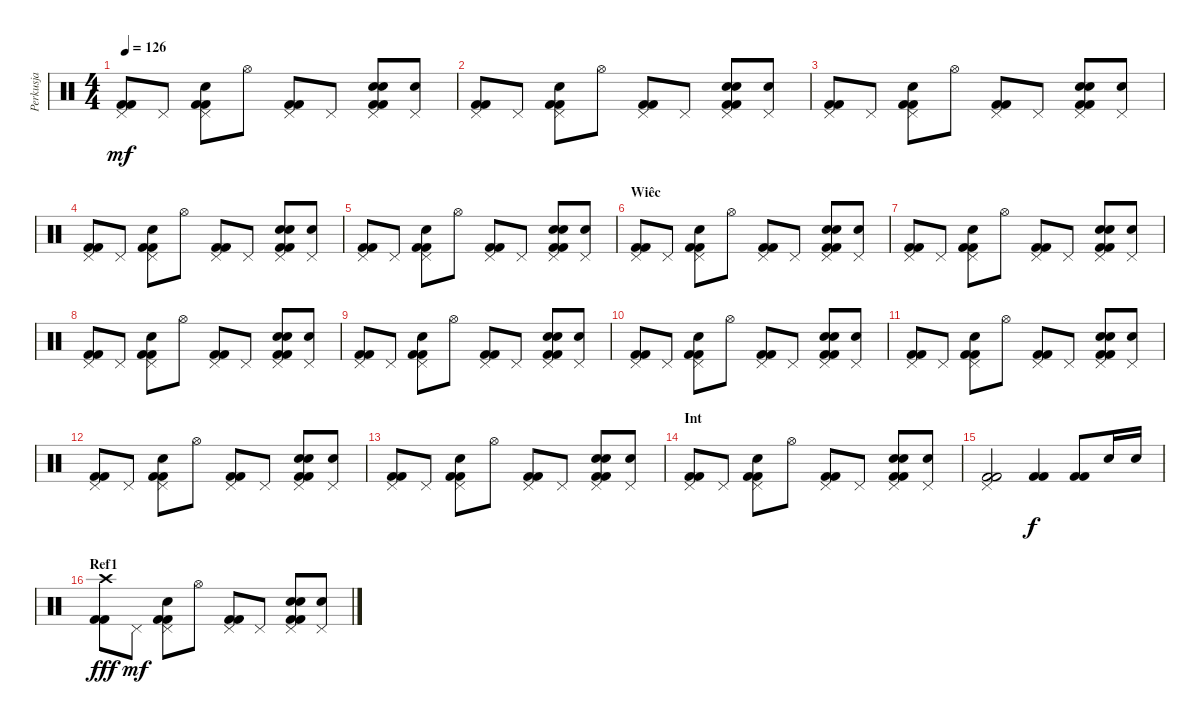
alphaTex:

\track ("Perkusja" "Perkusja") {instrument percussion}
\staff {score}
\articulation defaults
\ts (4 4)
\tempo 126
\clef neutral
\ks c
("Pedal Hi-Hat (hit)" "Kick (hit) 2" "Kick (hit) 2").8{dy mf} "Pedal Hi-Hat (hit)".8 ("Pedal Hi-Hat (hit)" "Snare (hit) 2" "Kick (hit) 2" "Kick (hit) 2").8 "Hi-Hat (open)".8 ("Pedal Hi-Hat (hit)" "Kick (hit) 2" "Kick (hit) 2").8 "Pedal Hi-Hat (hit)".8 ("Pedal Hi-Hat (hit)" "Hand Clap (hit)" "Snare (hit) 2" "Kick (hit) 2" "Kick (hit) 2").8 ("Pedal Hi-Hat (hit)" "Hand Clap (hit)").8 |
("Pedal Hi-Hat (hit)" "Kick (hit) 2" "Kick (hit) 2").8 "Pedal Hi-Hat (hit)".8 ("Pedal Hi-Hat (hit)" "Snare (hit) 2" "Kick (hit) 2" "Kick (hit) 2").8 "Hi-Hat (open)".8 ("Pedal Hi-Hat (hit)" "Kick (hit) 2" "Kick (hit) 2").8 "Pedal Hi-Hat (hit)".8 ("Pedal Hi-Hat (hit)" "Hand Clap (hit)" "Snare (hit) 2" "Kick (hit) 2" "Kick (hit) 2").8 ("Pedal Hi-Hat (hit)" "Hand Clap (hit)").8 |
("Pedal Hi-Hat (hit)" "Kick (hit) 2" "Kick (hit) 2").8 "Pedal Hi-Hat (hit)".8 ("Pedal Hi-Hat (hit)" "Snare (hit) 2" "Kick (hit) 2" "Kick (hit) 2").8 "Hi-Hat (open)".8 ("Pedal Hi-Hat (hit)" "Kick (hit) 2" "Kick (hit) 2").8 "Pedal Hi-Hat (hit)".8 ("Pedal Hi-Hat (hit)" "Hand Clap (hit)" "Snare (hit) 2" "Kick (hit) 2" "Kick (hit) 2").8 ("Pedal Hi-Hat (hit)" "Hand Clap (hit)").8 |
("Pedal Hi-Hat (hit)" "Kick (hit) 2" "Kick (hit) 2").8 "Pedal Hi-Hat (hit)".8 ("Pedal Hi-Hat (hit)" "Snare (hit) 2" "Kick (hit) 2" "Kick (hit) 2").8 "Hi-Hat (open)".8 ("Pedal Hi-Hat (hit)" "Kick (hit) 2" "Kick (hit) 2").8 "Pedal Hi-Hat (hit)".8 ("Pedal Hi-Hat (hit)" "Hand Clap (hit)" "Snare (hit) 2" "Kick (hit) 2" "Kick (hit) 2").8 ("Pedal Hi-Hat (hit)" "Hand Clap (hit)").8 |
("Pedal Hi-Hat (hit)" "Kick (hit) 2" "Kick (hit) 2").8 "Pedal Hi-Hat (hit)".8 ("Pedal Hi-Hat (hit)" "Snare (hit) 2" "Kick (hit) 2" "Kick (hit) 2").8 "Hi-Hat (open)".8 ("Pedal Hi-Hat (hit)" "Kick (hit) 2" "Kick (hit) 2").8 "Pedal Hi-Hat (hit)".8 ("Pedal Hi-Hat (hit)" "Hand Clap (hit)" "Snare (hit) 2" "Kick (hit) 2" "Kick (hit) 2").8 ("Pedal Hi-Hat (hit)" "Hand Clap (hit)").8 |
\section ("" "Wiêc")
("Pedal Hi-Hat (hit)" "Kick (hit) 2" "Kick (hit) 2").8 "Pedal Hi-Hat (hit)".8 ("Pedal Hi-Hat (hit)" "Snare (hit) 2" "Kick (hit) 2" "Kick (hit) 2").8 "Hi-Hat (open)".8 ("Pedal Hi-Hat (hit)" "Kick (hit) 2" "Kick (hit) 2").8 "Pedal Hi-Hat (hit)".8 ("Pedal Hi-Hat (hit)" "Hand Clap (hit)" "Snare (hit) 2" "Kick (hit) 2" "Kick (hit) 2").8 ("Pedal Hi-Hat (hit)" "Hand Clap (hit)").8 |
("Pedal Hi-Hat (hit)" "Kick (hit) 2" "Kick (hit) 2").8 "Pedal Hi-Hat (hit)".8 ("Pedal Hi-Hat (hit)" "Snare (hit) 2" "Kick (hit) 2" "Kick (hit) 2").8 "Hi-Hat (open)".8 ("Pedal Hi-Hat (hit)" "Kick (hit) 2" "Kick (hit) 2").8 "Pedal Hi-Hat (hit)".8 ("Pedal Hi-Hat (hit)" "Hand Clap (hit)" "Snare (hit) 2" "Kick (hit) 2" "Kick (hit) 2").8 ("Pedal Hi-Hat (hit)" "Hand Clap (hit)").8 |
("Pedal Hi-Hat (hit)" "Kick (hit) 2" "Kick (hit) 2").8 "Pedal Hi-Hat (hit)".8 ("Pedal Hi-Hat (hit)" "Snare (hit) 2" "Kick (hit) 2" "Kick (hit) 2").8 "Hi-Hat (open)".8 ("Pedal Hi-Hat (hit)" "Kick (hit) 2" "Kick (hit) 2").8 "Pedal Hi-Hat (hit)".8 ("Pedal Hi-Hat (hit)" "Hand Clap (hit)" "Snare (hit) 2" "Kick (hit) 2" "Kick (hit) 2").8 ("Pedal Hi-Hat (hit)" "Hand Clap (hit)").8 |
("Pedal Hi-Hat (hit)" "Kick (hit) 2" "Kick (hit) 2").8 "Pedal Hi-Hat (hit)".8 ("Pedal Hi-Hat (hit)" "Snare (hit) 2" "Kick (hit) 2" "Kick (hit) 2").8 "Hi-Hat (open)".8 ("Pedal Hi-Hat (hit)" "Kick (hit) 2" "Kick (hit) 2").8 "Pedal Hi-Hat (hit)".8 ("Pedal Hi-Hat (hit)" "Hand Clap (hit)" "Snare (hit) 2" "Kick (hit) 2" "Kick (hit) 2").8 ("Pedal Hi-Hat (hit)" "Hand Clap (hit)").8 |
("Pedal Hi-Hat (hit)" "Kick (hit) 2" "Kick (hit) 2").8 "Pedal Hi-Hat (hit)".8 ("Pedal Hi-Hat (hit)" "Snare (hit) 2" "Kick (hit) 2" "Kick (hit) 2").8 "Hi-Hat (open)".8 ("Pedal Hi-Hat (hit)" "Kick (hit) 2" "Kick (hit) 2").8 "Pedal Hi-Hat (hit)".8 ("Pedal Hi-Hat (hit)" "Hand Clap (hit)" "Snare (hit) 2" "Kick (hit) 2" "Kick (hit) 2").8 ("Pedal Hi-Hat (hit)" "Hand Clap (hit)").8 |
("Pedal Hi-Hat (hit)" "Kick (hit) 2" "Kick (hit) 2").8 "Pedal Hi-Hat (hit)".8 ("Pedal Hi-Hat (hit)" "Snare (hit) 2" "Kick (hit) 2" "Kick (hit) 2").8 "Hi-Hat (open)".8 ("Pedal Hi-Hat (hit)" "Kick (hit) 2" "Kick (hit) 2").8 "Pedal Hi-Hat (hit)".8 ("Pedal Hi-Hat (hit)" "Hand Clap (hit)" "Snare (hit) 2" "Kick (hit) 2" "Kick (hit) 2").8 ("Pedal Hi-Hat (hit)" "Hand Clap (hit)").8 |
("Pedal Hi-Hat (hit)" "Kick (hit) 2" "Kick (hit) 2").8 "Pedal Hi-Hat (hit)".8 ("Pedal Hi-Hat (hit)" "Snare (hit) 2" "Kick (hit) 2" "Kick (hit) 2").8 "Hi-Hat (open)".8 ("Pedal Hi-Hat (hit)" "Kick (hit) 2" "Kick (hit) 2").8 "Pedal Hi-Hat (hit)".8 ("Pedal Hi-Hat (hit)" "Hand Clap (hit)" "Snare (hit) 2" "Kick (hit) 2" "Kick (hit) 2").8 ("Pedal Hi-Hat (hit)" "Hand Clap (hit)").8 |
("Pedal Hi-Hat (hit)" "Kick (hit) 2" "Kick (hit) 2").8 "Pedal Hi-Hat (hit)".8 ("Pedal Hi-Hat (hit)" "Snare (hit) 2" "Kick (hit) 2" "Kick (hit) 2").8 "Hi-Hat (open)".8 ("Pedal Hi-Hat (hit)" "Kick (hit) 2" "Kick (hit) 2").8 "Pedal Hi-Hat (hit)".8 ("Pedal Hi-Hat (hit)" "Hand Clap (hit)" "Snare (hit) 2" "Kick (hit) 2" "Kick (hit) 2").8 ("Pedal Hi-Hat (hit)" "Hand Clap (hit)").8 |
\section ("" "Int")
("Pedal Hi-Hat (hit)" "Kick (hit) 2" "Kick (hit) 2").8 "Pedal Hi-Hat (hit)".8 ("Pedal Hi-Hat (hit)" "Snare (hit) 2" "Kick (hit) 2" "Kick (hit) 2").8 "Hi-Hat (open)".8 ("Pedal Hi-Hat (hit)" "Kick (hit) 2" "Kick (hit) 2").8 "Pedal Hi-Hat (hit)".8 ("Pedal Hi-Hat (hit)" "Hand Clap (hit)" "Snare (hit) 2" "Kick (hit) 2" "Kick (hit) 2").8 ("Pedal Hi-Hat (hit)" "Hand Clap (hit)").8 |
("Pedal Hi-Hat (hit)" "Kick (hit) 2" "Kick (hit) 2").2 ("Kick (hit) 2" "Kick (hit) 2").4{dy f} ("Kick (hit) 2" "Kick (hit) 2").8 "Snare (hit) 2".16 "Snare (hit) 2".16 |
\section ("" "Ref1")
("Crash high (hit)" "Kick (hit) 2" "Kick (hit) 2").8{dy fff} "Pedal Hi-Hat (hit)".8{dy mf} ("Pedal Hi-Hat (hit)" "Snare (hit) 2" "Kick (hit) 2" "Kick (hit) 2").8 "Hi-Hat (open)".8 ("Pedal Hi-Hat (hit)" "Kick (hit) 2" "Kick (hit) 2").8 "Pedal Hi-Hat (hit)".8 ("Pedal Hi-Hat (hit)" "Hand Clap (hit)" "Snare (hit) 2" "Kick (hit) 2" "Kick (hit) 2").8 ("Pedal Hi-Hat (hit)" "Hand Clap (hit)").8
